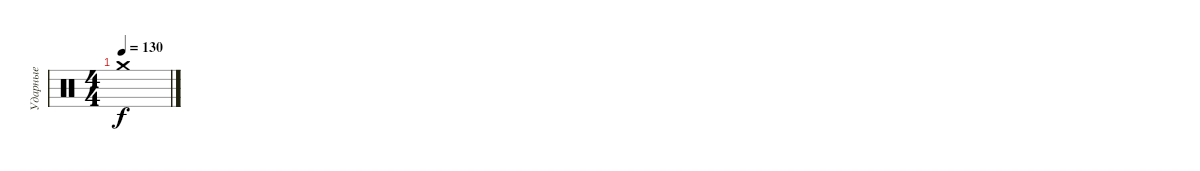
\track ("Ударные" "Ударные") {instrument percussion}
\staff {score}
\articulation defaults
\ts (4 4)
\tempo 130
\clef neutral
\ks c "Crash medium (hit)".1{dy f}
